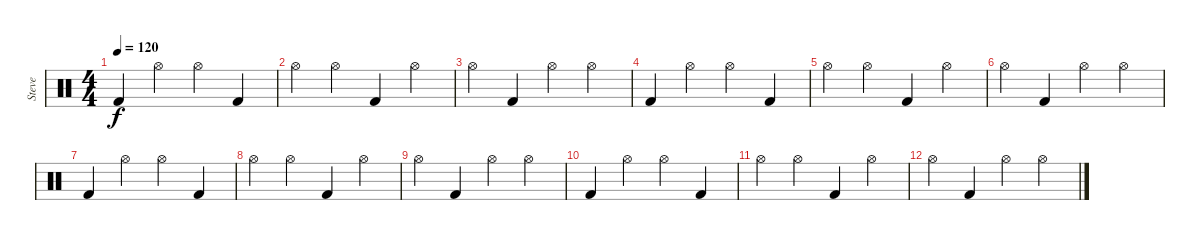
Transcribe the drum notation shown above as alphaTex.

\track ("Steve" "Steve") {instrument percussion}
\staff {score}
\articulation defaults
\ts (4 4)
\tempo 120
\clef neutral
\ks c "Kick (hit) 2".4{dy f} "Hi-Hat (open)".4 "Hi-Hat (open)".4 "Kick (hit) 2".4
|
"Hi-Hat (open)".4 "Hi-Hat (open)".4 "Kick (hit) 2".4 "Hi-Hat (open)".4 |
"Hi-Hat (open)".4 "Kick (hit) 2".4 "Hi-Hat (open)".4 "Hi-Hat (open)".4 |
"Kick (hit) 2".4 "Hi-Hat (open)".4 "Hi-Hat (open)".4 "Kick (hit) 2".4 |
"Hi-Hat (open)".4 "Hi-Hat (open)".4 "Kick (hit) 2".4 "Hi-Hat (open)".4 |
"Hi-Hat (open)".4 "Kick (hit) 2".4 "Hi-Hat (open)".4 "Hi-Hat (open)".4 |
"Kick (hit) 2".4 "Hi-Hat (open)".4 "Hi-Hat (open)".4 "Kick (hit) 2".4 |
"Hi-Hat (open)".4 "Hi-Hat (open)".4 "Kick (hit) 2".4 "Hi-Hat (open)".4 |
"Hi-Hat (open)".4 "Kick (hit) 2".4 "Hi-Hat (open)".4 "Hi-Hat (open)".4 |
"Kick (hit) 2".4 "Hi-Hat (open)".4 "Hi-Hat (open)".4 "Kick (hit) 2".4 |
"Hi-Hat (open)".4 "Hi-Hat (open)".4 "Kick (hit) 2".4 "Hi-Hat (open)".4 |
"Hi-Hat (open)".4 "Kick (hit) 2".4 "Hi-Hat (open)".4 "Hi-Hat (open)".4
